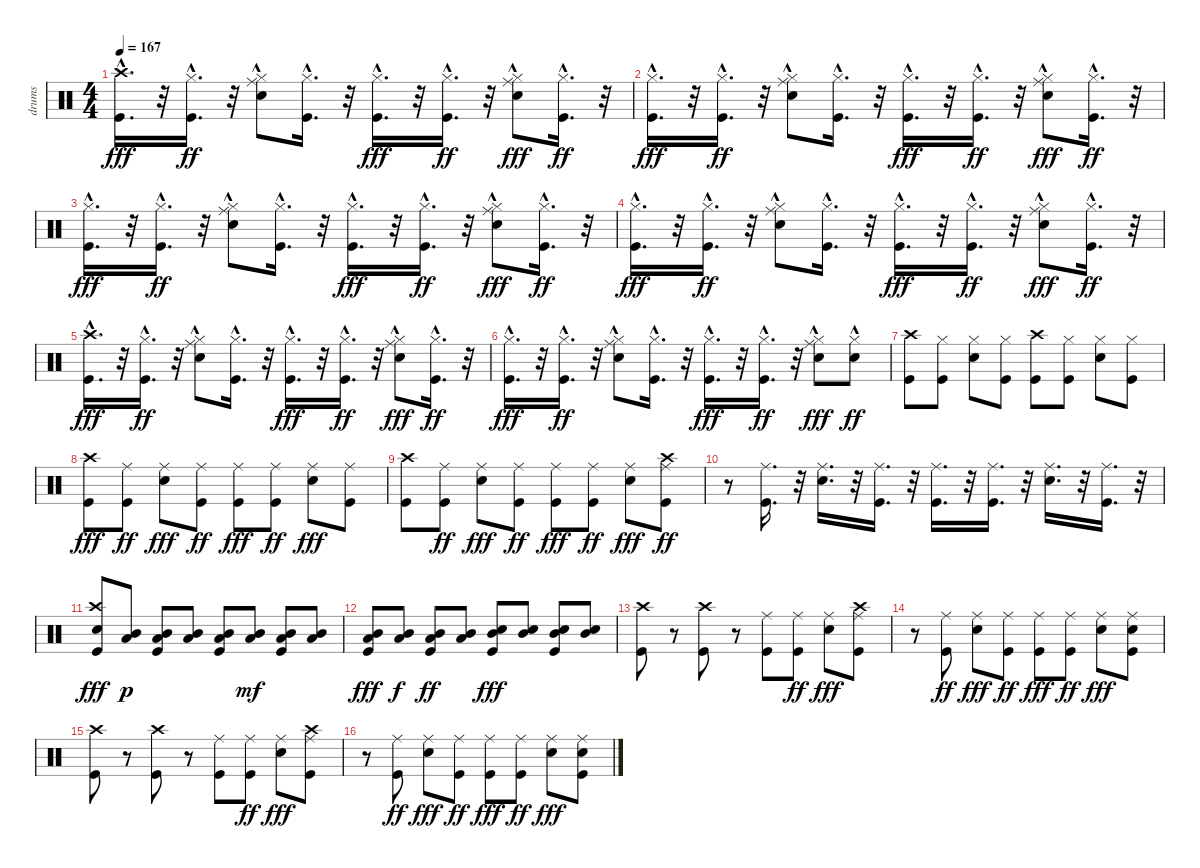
\track ("drums" "drums") {instrument percussion}
\staff {score}
\articulation defaults
\ts (4 4)
\tempo 167
\clef neutral
\ks c
("Kick (hit)"{hac} "Crash high (hit)"{hac}).16{d dy fff} r.32 ("Kick (hit)"{hac} "Hi-Hat (closed)"{hac}).16{d dy ff} r.32 ("Snare (hit) 2"{hac} "Hi-Hat (closed)"{hac} "Ride (middle)").8 ("Kick (hit)"{hac} "Hi-Hat (closed)"{hac}).16{d} r.32 ("Kick (hit)"{hac} "Hi-Hat (closed)"{hac}).16{d dy fff} r.32 ("Kick (hit)"{hac} "Hi-Hat (closed)"{hac}).16{d dy ff} r.32 ("Ride (middle)" "Snare (hit) 2"{hac} "Hi-Hat (closed)"{hac}).8{dy fff} ("Kick (hit)"{hac} "Hi-Hat (closed)"{hac}).16{d dy ff} r.32 |
("Kick (hit)"{hac} "Hi-Hat (closed)"{hac}).16{d dy fff} r.32 ("Kick (hit)"{hac} "Hi-Hat (closed)"{hac}).16{d dy ff} r.32 ("Snare (hit) 2"{hac} "Hi-Hat (closed)"{hac} "Ride (middle)").8 ("Kick (hit)"{hac} "Hi-Hat (closed)"{hac}).16{d} r.32 ("Kick (hit)"{hac} "Hi-Hat (closed)"{hac}).16{d dy fff} r.32 ("Kick (hit)"{hac} "Hi-Hat (closed)"{hac}).16{d dy ff} r.32 ("Ride (middle)" "Snare (hit) 2"{hac} "Hi-Hat (closed)"{hac}).8{dy fff} ("Kick (hit)"{hac} "Hi-Hat (closed)"{hac}).16{d dy ff} r.32 |
("Kick (hit)"{hac} "Hi-Hat (closed)"{hac}).16{d dy fff} r.32 ("Kick (hit)"{hac} "Hi-Hat (closed)"{hac}).16{d dy ff} r.32 ("Snare (hit) 2"{hac} "Hi-Hat (closed)"{hac} "Ride (middle)").8 ("Kick (hit)"{hac} "Hi-Hat (closed)"{hac}).16{d} r.32 ("Kick (hit)"{hac} "Hi-Hat (closed)"{hac}).16{d dy fff} r.32 ("Kick (hit)"{hac} "Hi-Hat (closed)"{hac}).16{d dy ff} r.32 ("Ride (middle)" "Snare (hit) 2"{hac} "Hi-Hat (closed)"{hac}).8{dy fff} ("Kick (hit)"{hac} "Hi-Hat (closed)"{hac}).16{d dy ff} r.32 |
("Kick (hit)"{hac} "Hi-Hat (closed)"{hac}).16{d dy fff} r.32 ("Kick (hit)"{hac} "Hi-Hat (closed)"{hac}).16{d dy ff} r.32 ("Snare (hit) 2"{hac} "Hi-Hat (closed)"{hac} "Ride (middle)").8 ("Kick (hit)"{hac} "Hi-Hat (closed)"{hac}).16{d} r.32 ("Kick (hit)"{hac} "Hi-Hat (closed)"{hac}).16{d dy fff} r.32 ("Kick (hit)"{hac} "Hi-Hat (closed)"{hac}).16{d dy ff} r.32 ("Ride (middle)" "Snare (hit) 2"{hac} "Hi-Hat (closed)"{hac}).8{dy fff} ("Kick (hit)"{hac} "Hi-Hat (closed)"{hac}).16{d dy ff} r.32 |
("Kick (hit)"{hac} "Crash high (hit)"{hac}).16{d dy fff} r.32 ("Kick (hit)"{hac} "Hi-Hat (closed)"{hac}).16{d dy ff} r.32 ("Snare (hit) 2"{hac} "Hi-Hat (closed)"{hac} "Ride (middle)").8 ("Kick (hit)"{hac} "Hi-Hat (closed)"{hac}).16{d} r.32 ("Kick (hit)"{hac} "Hi-Hat (closed)"{hac}).16{d dy fff} r.32 ("Kick (hit)"{hac} "Hi-Hat (closed)"{hac}).16{d dy ff} r.32 ("Ride (middle)" "Snare (hit) 2"{hac} "Hi-Hat (closed)"{hac}).8{dy fff} ("Kick (hit)"{hac} "Hi-Hat (closed)"{hac}).16{d dy ff} r.32 |
("Kick (hit)"{hac} "Hi-Hat (closed)"{hac}).16{d dy fff} r.32 ("Kick (hit)"{hac} "Hi-Hat (closed)"{hac}).16{d dy ff} r.32 ("Snare (hit) 2"{hac} "Hi-Hat (closed)"{hac} "Ride (middle)").8 ("Kick (hit)"{hac} "Hi-Hat (closed)"{hac}).16{d} r.32 ("Kick (hit)"{hac} "Hi-Hat (closed)"{hac}).16{d dy fff} r.32 ("Kick (hit)"{hac} "Hi-Hat (closed)"{hac}).16{d dy ff} r.32 ("Ride (middle)" "Snare (hit) 2"{hac} "Hi-Hat (closed)"{hac}).8{dy fff} ("Snare (hit) 2" "Hi-Hat (closed)"{hac}).8{dy ff} |
("Kick (hit)" "Crash high (hit)").8 ("Kick (hit)" "Hi-Hat (closed)").8 ("Snare (hit) 2" "Hi-Hat (closed)").8 ("Kick (hit)" "Hi-Hat (closed)").8 ("Kick (hit)" "Crash high (hit)").8 ("Kick (hit)" "Hi-Hat (closed)").8 ("Snare (hit) 2" "Hi-Hat (closed)").8 ("Hi-Hat (closed)" "Kick (hit)").8 |
("Kick (hit)" "Crash high (hit)").8{dy fff} ("Kick (hit)" "Ride (middle)").8{dy ff} ("Snare (hit) 2" "Ride (middle)").8{dy fff} ("Kick (hit)" "Ride (middle)").8{dy ff} ("Kick (hit)" "Ride (middle)").8{dy fff} ("Kick (hit)" "Ride (middle)").8{dy ff} ("Snare (hit) 2" "Ride (middle)").8{dy fff} ("Ride (middle)" "Kick (hit)").8 |
("Kick (hit)" "Crash high (hit)").8 ("Kick (hit)" "Ride (middle)").8{dy ff} ("Snare (hit) 2" "Ride (middle)").8{dy fff} ("Kick (hit)" "Ride (middle)").8{dy ff} ("Kick (hit)" "Ride (middle)").8{dy fff} ("Kick (hit)" "Ride (middle)").8{dy ff} ("Snare (hit) 2" "Ride (middle)").8{dy fff} ("Ride (middle)" "Kick (hit)" "Crash high (hit)").8{dy ff} |
r.8 ("Kick (hit)" "Ride (middle)").16{d} r.32 ("Snare (hit) 2" "Ride (middle)").16{d} r.32 ("Kick (hit)" "Ride (middle)").16{d} r.32 ("Kick (hit)" "Ride (middle)").16{d} r.32 ("Kick (hit)" "Ride (middle)").16{d} r.32 ("Snare (hit) 2" "Ride (middle)").16{d} r.32 ("Kick (hit)" "Ride (middle)").16{d} r.32 |
("Kick (hit)" "Snare (hit) 2" "Crash high (hit)").8{dy fff} ("Low Tom (hit)" "Mid Tom (hit)").8{dy p} ("Kick (hit)" "Low Tom (hit)" "Mid Tom (hit)").8 ("Low Tom (hit)" "Mid Tom (hit)").8 ("Kick (hit)" "Low Tom (hit)" "Mid Tom (hit)").8 ("Low Tom (hit)" "Mid Tom (hit)").8{dy mf} ("Kick (hit)" "Low Tom (hit)" "Mid Tom (hit)").8 ("Mid Tom (hit)" "Low Tom (hit)").8 |
("Kick (hit)" "Low Tom (hit)" "Mid Tom (hit)").8{dy fff} ("Low Tom (hit)" "Mid Tom (hit)").8{dy f} ("Kick (hit)" "Low Tom (hit)" "Mid Tom (hit)").8{dy ff} ("Low Tom (hit)" "Mid Tom (hit)").8 ("Kick (hit)" "Snare (hit) 2" "Mid Tom (hit)").8{dy fff} ("Snare (hit) 2" "Mid Tom (hit)").8 ("Kick (hit)" "Snare (hit) 2" "Mid Tom (hit)").8 ("Mid Tom (hit)" "Snare (hit) 2").8 |
("Kick (hit)" "Crash high (hit)").8 r.8 ("Kick (hit)" "Crash high (hit)").8 r.8 ("Kick (hit)" "Ride (middle)").8 ("Kick (hit)" "Ride (middle)").8{dy ff} ("Snare (hit) 2" "Ride (middle)").8{dy fff} ("Ride (middle)" "Crash high (hit)" "Kick (hit)").8 |
r.8 ("Kick (hit)" "Ride (middle)").8{dy ff} ("Snare (hit) 2" "Ride (middle)").8{dy fff} ("Kick (hit)" "Ride (middle)").8{dy ff} ("Kick (hit)" "Ride (middle)").8{dy fff} ("Kick (hit)" "Ride (middle)").8{dy ff} ("Snare (hit) 2" "Ride (middle)").8{dy fff} ("Ride (middle)" "Snare (hit) 2" "Kick (hit)").8 |
("Kick (hit)" "Crash high (hit)").8 r.8 ("Kick (hit)" "Crash high (hit)").8 r.8 ("Kick (hit)" "Ride (middle)").8 ("Kick (hit)" "Ride (middle)").8{dy ff} ("Snare (hit) 2" "Ride (middle)").8{dy fff} ("Ride (middle)" "Crash high (hit)" "Kick (hit)").8 |
r.8 ("Kick (hit)" "Ride (middle)").8{dy ff} ("Snare (hit) 2" "Ride (middle)").8{dy fff} ("Kick (hit)" "Ride (middle)").8{dy ff} ("Kick (hit)" "Ride (middle)").8{dy fff} ("Kick (hit)" "Ride (middle)").8{dy ff} ("Snare (hit) 2" "Ride (middle)").8{dy fff} ("Ride (middle)" "Snare (hit) 2" "Kick (hit)").8
